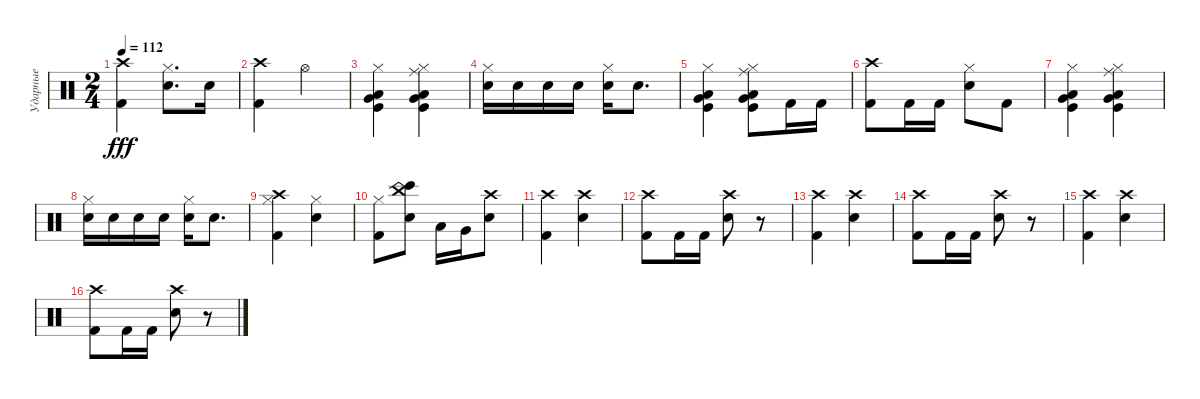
\track ("Ударные" "Ударные") {instrument percussion}
\staff {score}
\articulation defaults
\ts (2 4)
\tempo 112
\clef neutral
\ks c
("Kick (hit) 2" "Crash high (hit)").4{dy fff} ("Hi-Hat (closed)" "Electric Snare (hit)").8{d} "Electric Snare (hit)".16 |
("Kick (hit) 2" "Crash high (hit)").4 "Hi-Hat (open)".4 |
("Kick (hit)" "Hi-Hat (closed)" "Very Low Tom (hit)" "Low Floor Tom (hit)").4 ("Kick (hit)" "Low Floor Tom (hit)" "Very Low Tom (hit)" "Hi-Hat (closed)" "Ride (middle)").4 |
("Electric Snare (hit)" "Hi-Hat (closed)").16 "Electric Snare (hit)".16 "Electric Snare (hit)".16 "Electric Snare (hit)".16 ("Electric Snare (hit)" "Hi-Hat (closed)").16 "Electric Snare (hit)".8{d} |
("Low Floor Tom (hit)" "Kick (hit)" "Hi-Hat (closed)" "Very Low Tom (hit)").4 ("Kick (hit)" "Low Floor Tom (hit)" "Very Low Tom (hit)" "Ride (middle)" "Hi-Hat (closed)").8 "Kick (hit) 2".16 "Kick (hit) 2".16 |
("Crash high (hit)" "Kick (hit) 2").8 "Kick (hit) 2".16 "Kick (hit) 2".16 ("Electric Snare (hit)" "Hi-Hat (closed)").8 "Kick (hit) 2".8 |
("Low Floor Tom (hit)" "Hi-Hat (closed)" "Kick (hit)" "Very Low Tom (hit)").4 ("Kick (hit)" "Low Floor Tom (hit)" "Very Low Tom (hit)" "Ride (middle)" "Hi-Hat (closed)").4 |
("Electric Snare (hit)" "Hi-Hat (closed)").16 "Electric Snare (hit)".16 "Electric Snare (hit)".16 "Electric Snare (hit)".16 ("Hi-Hat (closed)" "Electric Snare (hit)").16 "Electric Snare (hit)".8{d} |
("Kick (hit) 2" "Hi-Hat (closed)" "Crash high (hit)").4 ("Electric Snare (hit)" "Hi-Hat (closed)").4 |
("Kick (hit) 2" "Hi-Hat (closed)").8 ("Electric Snare (hit)" "Bongo High (hit)" "China (hit)").8 "Low Tom (hit)".16 "Very Low Tom (hit)".16 ("Electric Snare (hit)" "Crash high (hit)").8 |
("Kick (hit) 2" "Crash high (hit)").4 ("Electric Snare (hit)" "Crash high (hit)").4 |
("Kick (hit) 2" "Crash high (hit)").8 "Kick (hit) 2".16 "Kick (hit) 2".16 ("Electric Snare (hit)" "Crash high (hit)").8 r.8 |
("Kick (hit) 2" "Crash high (hit)").4 ("Electric Snare (hit)" "Crash high (hit)").4 |
("Kick (hit) 2" "Crash high (hit)").8 "Kick (hit) 2".16 "Kick (hit) 2".16 ("Electric Snare (hit)" "Crash high (hit)").8 r.8 |
("Kick (hit) 2" "Crash high (hit)").4 ("Electric Snare (hit)" "Crash high (hit)").4 |
("Kick (hit) 2" "Crash high (hit)").8 "Kick (hit) 2".16 "Kick (hit) 2".16 ("Electric Snare (hit)" "Crash high (hit)").8 r.8
